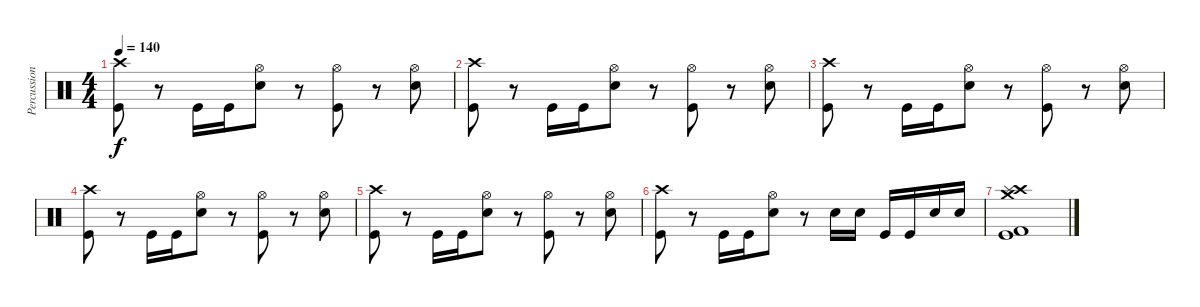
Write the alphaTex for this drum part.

\track ("Percussion" "Percussion") {instrument percussion}
\staff {score}
\articulation defaults
\ts (4 4)
\tempo 140
\clef neutral
\ks c
("Crash high (hit)" "Kick (hit)").8{dy f} r.8 "Kick (hit)".16 "Kick (hit)".16 ("Hi-Hat (open)" "Electric Snare (hit)").8 r.8 ("Hi-Hat (open)" "Kick (hit)").8 r.8 ("Hi-Hat (open)" "Electric Snare (hit)").8 |
("Crash high (hit)" "Kick (hit)").8 r.8 "Kick (hit)".16 "Kick (hit)".16 ("Hi-Hat (open)" "Electric Snare (hit)").8 r.8 ("Hi-Hat (open)" "Kick (hit)").8 r.8 ("Hi-Hat (open)" "Electric Snare (hit)").8 |
("Crash high (hit)" "Kick (hit)").8 r.8 "Kick (hit)".16 "Kick (hit)".16 ("Hi-Hat (open)" "Electric Snare (hit)").8 r.8 ("Hi-Hat (open)" "Kick (hit)").8 r.8 ("Hi-Hat (open)" "Electric Snare (hit)").8 |
("Crash high (hit)" "Kick (hit)").8 r.8 "Kick (hit)".16 "Kick (hit)".16 ("Hi-Hat (open)" "Electric Snare (hit)").8 r.8 ("Hi-Hat (open)" "Kick (hit)").8 r.8 ("Hi-Hat (open)" "Electric Snare (hit)").8 |
("Crash high (hit)" "Kick (hit)").8 r.8 "Kick (hit)".16 "Kick (hit)".16 ("Hi-Hat (open)" "Electric Snare (hit)").8 r.8 ("Hi-Hat (open)" "Kick (hit)").8 r.8 ("Hi-Hat (open)" "Electric Snare (hit)").8 |
("Crash high (hit)" "Kick (hit)").8 r.8 "Kick (hit)".16 "Kick (hit)".16 ("Hi-Hat (open)" "Electric Snare (hit)").8 r.8 "Electric Snare (hit)".16 "Electric Snare (hit)".16 "Kick (hit)".16 "Kick (hit)".16 "Electric Snare (hit)".16 "Electric Snare (hit)".16 |
("Crash medium (hit)" "Crash high (hit)" "Splash (hit)" "Kick (hit) 2" "Kick (hit)").1
